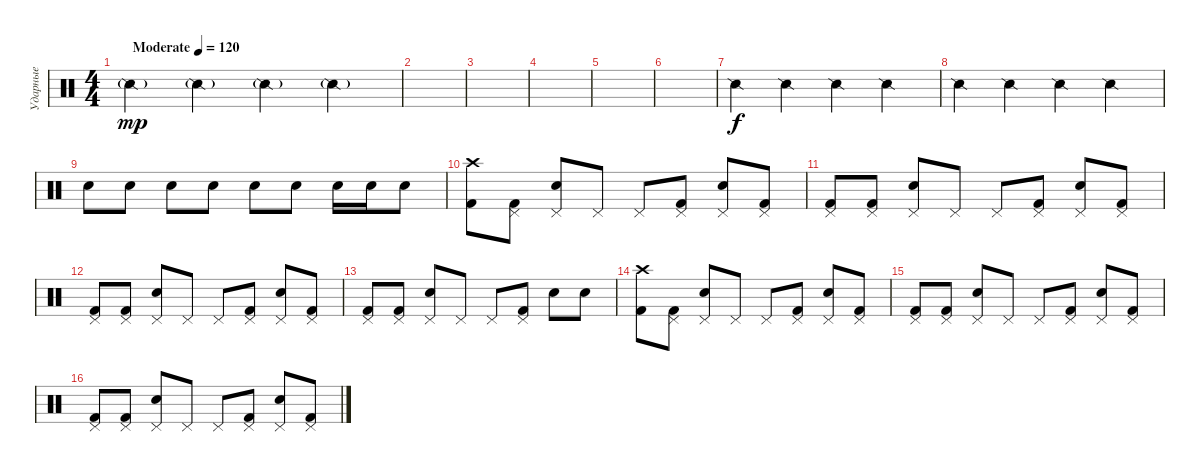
\track ("Ударные" "Ударные") {instrument percussion}
\staff {score}
\articulation defaults
\ts (4 4)
\tempo (120 "Moderate")
\clef neutral
\ks c "Snare (side stick) 2"{g}.4{dy mp} "Snare (side stick) 2"{g}.4 "Snare (side stick) 2"{g}.4 "Snare (side stick) 2"{g}.4
|
|
|
|
|
|
"Snare (side stick) 2".4{dy f} "Snare (side stick) 2".4 "Snare (side stick) 2".4 "Snare (side stick) 2".4 |
"Snare (side stick) 2".4 "Snare (side stick) 2".4 "Snare (side stick) 2".4 "Snare (side stick) 2".4 |
"Snare (hit) 2".8 "Snare (hit) 2".8 "Snare (hit) 2".8 "Snare (hit) 2".8 "Snare (hit) 2".8 "Snare (hit) 2".8 "Snare (hit) 2".16 "Snare (hit) 2".16 "Snare (hit) 2".8 |
("Crash high (hit)" "Kick (hit) 2").8 ("Pedal Hi-Hat (hit)" "Kick (hit) 2").8 ("Pedal Hi-Hat (hit)" "Snare (hit) 2").8 "Pedal Hi-Hat (hit)".8 "Pedal Hi-Hat (hit)".8 ("Pedal Hi-Hat (hit)" "Kick (hit) 2").8 ("Pedal Hi-Hat (hit)" "Snare (hit) 2").8 ("Pedal Hi-Hat (hit)" "Kick (hit) 2").8 |
("Pedal Hi-Hat (hit)" "Kick (hit) 2").8 ("Pedal Hi-Hat (hit)" "Kick (hit) 2").8 ("Pedal Hi-Hat (hit)" "Snare (hit) 2").8 "Pedal Hi-Hat (hit)".8 "Pedal Hi-Hat (hit)".8 ("Pedal Hi-Hat (hit)" "Kick (hit) 2").8 ("Pedal Hi-Hat (hit)" "Snare (hit) 2").8 ("Pedal Hi-Hat (hit)" "Kick (hit) 2").8 |
("Pedal Hi-Hat (hit)" "Kick (hit) 2").8 ("Pedal Hi-Hat (hit)" "Kick (hit) 2").8 ("Pedal Hi-Hat (hit)" "Snare (hit) 2").8 "Pedal Hi-Hat (hit)".8 "Pedal Hi-Hat (hit)".8 ("Pedal Hi-Hat (hit)" "Kick (hit) 2").8 ("Pedal Hi-Hat (hit)" "Snare (hit) 2").8 ("Pedal Hi-Hat (hit)" "Kick (hit) 2").8 |
("Pedal Hi-Hat (hit)" "Kick (hit) 2").8 ("Pedal Hi-Hat (hit)" "Kick (hit) 2").8 ("Pedal Hi-Hat (hit)" "Snare (hit) 2").8 "Pedal Hi-Hat (hit)".8 "Pedal Hi-Hat (hit)".8 ("Pedal Hi-Hat (hit)" "Kick (hit) 2").8 "Snare (hit) 2".8 "Snare (hit) 2".8 |
("Crash high (hit)" "Kick (hit) 2").8 ("Pedal Hi-Hat (hit)" "Kick (hit) 2").8 ("Pedal Hi-Hat (hit)" "Snare (hit) 2").8 "Pedal Hi-Hat (hit)".8 "Pedal Hi-Hat (hit)".8 ("Pedal Hi-Hat (hit)" "Kick (hit) 2").8 ("Pedal Hi-Hat (hit)" "Snare (hit) 2").8 ("Pedal Hi-Hat (hit)" "Kick (hit) 2").8 |
("Pedal Hi-Hat (hit)" "Kick (hit) 2").8 ("Pedal Hi-Hat (hit)" "Kick (hit) 2").8 ("Pedal Hi-Hat (hit)" "Snare (hit) 2").8 "Pedal Hi-Hat (hit)".8 "Pedal Hi-Hat (hit)".8 ("Pedal Hi-Hat (hit)" "Kick (hit) 2").8 ("Pedal Hi-Hat (hit)" "Snare (hit) 2").8 ("Pedal Hi-Hat (hit)" "Kick (hit) 2").8 |
("Pedal Hi-Hat (hit)" "Kick (hit) 2").8 ("Pedal Hi-Hat (hit)" "Kick (hit) 2").8 ("Pedal Hi-Hat (hit)" "Snare (hit) 2").8 "Pedal Hi-Hat (hit)".8 "Pedal Hi-Hat (hit)".8 ("Pedal Hi-Hat (hit)" "Kick (hit) 2").8 ("Pedal Hi-Hat (hit)" "Snare (hit) 2").8 ("Pedal Hi-Hat (hit)" "Kick (hit) 2").8
